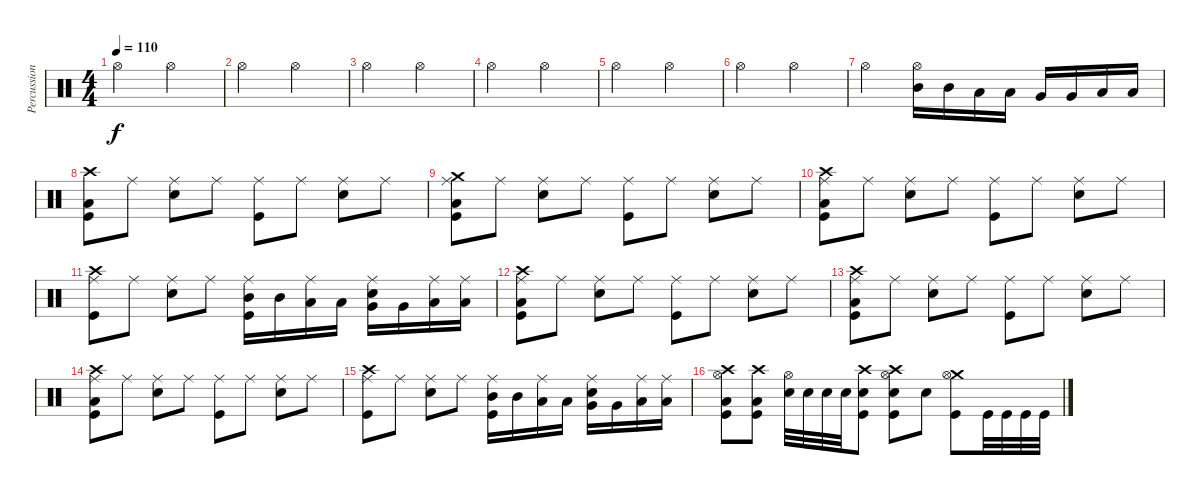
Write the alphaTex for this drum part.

\track ("Percussion" "Percussion") {instrument percussion}
\staff {score}
\articulation defaults
\ts (4 4)
\tempo 110
\clef neutral
\ks c "Hi-Hat (open)".2{dy f} "Hi-Hat (open)".2
|
"Hi-Hat (open)".2 "Hi-Hat (open)".2 |
"Hi-Hat (open)".2 "Hi-Hat (open)".2 |
"Hi-Hat (open)".2 "Hi-Hat (open)".2 |
"Hi-Hat (open)".2 "Hi-Hat (open)".2 |
"Hi-Hat (open)".2 "Hi-Hat (open)".2 |
"Hi-Hat (open)".2 ("Mid Tom (hit)" "Hi-Hat (open)").16 "Mid Tom (hit)".16 "Low Tom (hit)".16 "Low Tom (hit)".16 "Very Low Tom (hit)".16 "Very Low Tom (hit)".16 "Low Floor Tom (hit)".16 "Low Floor Tom (hit)".16 |
("Crash high (hit)" "Low Floor Tom (hit)" "Kick (hit)").8 "Ride (middle)".8 ("Ride (middle)" "Electric Snare (hit)").8 "Ride (middle)".8 ("Ride (middle)" "Kick (hit)").8 "Ride (middle)".8 ("Ride (middle)" "Electric Snare (hit)").8 "Ride (middle)".8 |
("Crash medium (hit)" "Ride (middle)" "Low Floor Tom (hit)" "Kick (hit)").8 "Ride (middle)".8 ("Ride (middle)" "Electric Snare (hit)").8 "Ride (middle)".8 ("Ride (middle)" "Kick (hit)").8 "Ride (middle)".8 ("Ride (middle)" "Electric Snare (hit)").8 "Ride (middle)".8 |
("Crash high (hit)" "Ride (middle)" "Low Floor Tom (hit)" "Kick (hit)").8 "Ride (middle)".8 ("Ride (middle)" "Electric Snare (hit)").8 "Ride (middle)".8 ("Ride (middle)" "Kick (hit)").8 "Ride (middle)".8 ("Ride (middle)" "Electric Snare (hit)").8 "Ride (middle)".8 |
("Crash high (hit)" "Ride (middle)" "Kick (hit)").8 "Ride (middle)".8 ("Ride (middle)" "Electric Snare (hit)").8 "Ride (middle)".8 ("Mid Tom (hit)" "Ride (middle)" "Kick (hit)").16 "Mid Tom (hit)".16 ("Low Tom (hit)" "Ride (middle)").16 "Low Tom (hit)".16 ("Very Low Tom (hit)" "Ride (middle)" "Electric Snare (hit)").16 "Very Low Tom (hit)".16 ("Low Floor Tom (hit)" "Ride (middle)").16 ("Low Floor Tom (hit)" "Ride (middle)").16 |
("Crash high (hit)" "Ride (middle)" "Low Floor Tom (hit)" "Kick (hit)").8 "Ride (middle)".8 ("Ride (middle)" "Electric Snare (hit)").8 "Ride (middle)".8 ("Ride (middle)" "Kick (hit)").8 "Ride (middle)".8 ("Ride (middle)" "Electric Snare (hit)").8 "Ride (middle)".8 |
("Crash high (hit)" "Ride (middle)" "Low Floor Tom (hit)" "Kick (hit)").8 "Ride (middle)".8 ("Ride (middle)" "Electric Snare (hit)").8 "Ride (middle)".8 ("Ride (middle)" "Kick (hit)").8 "Ride (middle)".8 ("Ride (middle)" "Electric Snare (hit)").8 "Ride (middle)".8 |
("Crash high (hit)" "Ride (middle)" "Low Floor Tom (hit)" "Kick (hit)").8 "Ride (middle)".8 ("Ride (middle)" "Electric Snare (hit)").8 "Ride (middle)".8 ("Ride (middle)" "Kick (hit)").8 "Ride (middle)".8 ("Ride (middle)" "Electric Snare (hit)").8 "Ride (middle)".8 |
("Crash high (hit)" "Ride (middle)" "Kick (hit)").8 "Ride (middle)".8 ("Ride (middle)" "Electric Snare (hit)").8 "Ride (middle)".8 ("Mid Tom (hit)" "Ride (middle)" "Kick (hit)").16 "Mid Tom (hit)".16 ("Low Tom (hit)" "Ride (middle)").16 "Low Tom (hit)".16 ("Very Low Tom (hit)" "Ride (middle)" "Electric Snare (hit)").16 "Very Low Tom (hit)".16 ("Low Floor Tom (hit)" "Ride (middle)").16 ("Low Floor Tom (hit)" "Ride (middle)").16 |
("Crash high (hit)" "Low Floor Tom (hit)" "Hi-Hat (open)" "Kick (hit)").8 ("Crash high (hit)" "Low Floor Tom (hit)" "Kick (hit)").8 ("Electric Snare (hit)" "Hi-Hat (open)").32 "Electric Snare (hit)".32 "Electric Snare (hit)".32 "Electric Snare (hit)".32 ("Crash high (hit)" "Electric Snare (hit)" "Kick (hit)").8 ("Crash high (hit)" "Electric Snare (hit)" "Hi-Hat (open)" "Kick (hit)").8 "Electric Snare (hit)".8 ("Crash medium (hit)" "Hi-Hat (open)" "Kick (hit)").8 "Kick (hit)".32 "Kick (hit)".32 "Kick (hit)".32 "Kick (hit)".32
